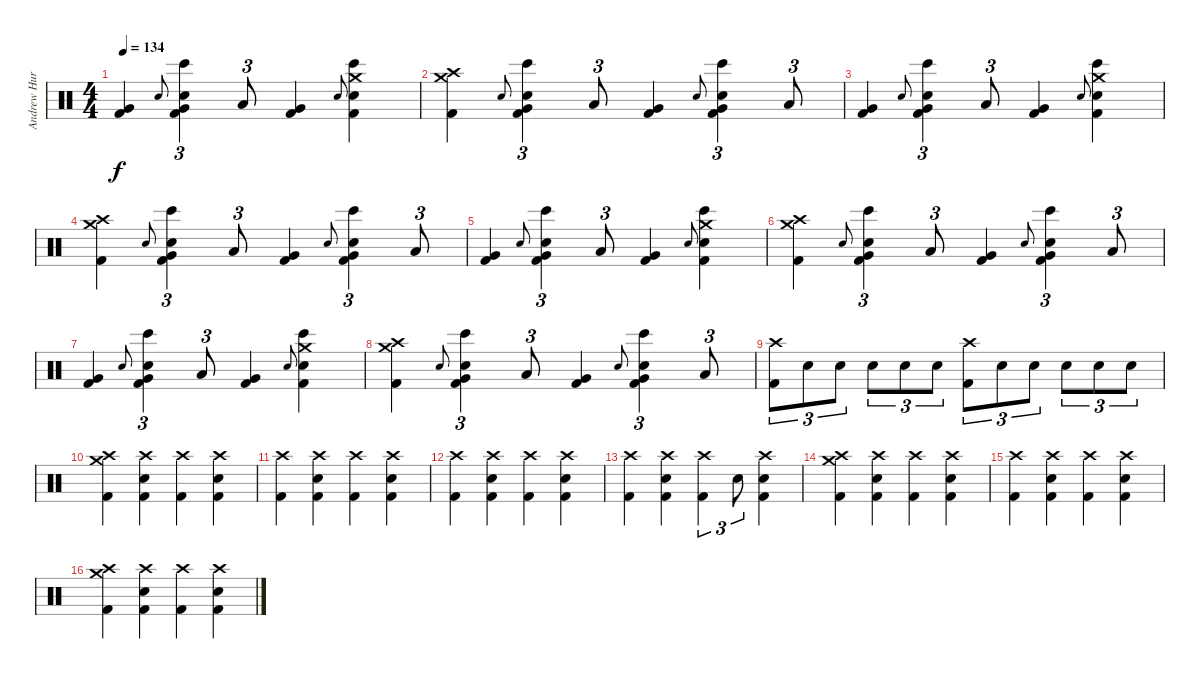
\track ("Andrew Hurley (Drums)" "Andrew Hur") {instrument percussion}
\staff {score}
\articulation defaults
\ts (4 4)
\tempo 134
\clef neutral
\ks c
("Very Low Tom (hit)" "Kick (hit) 2").4{dy f} "Snare (hit)".8{gr onbeat} ("Very Low Tom (hit)" "Snare (hit) 2" "Kick (hit) 2" "Bongo High (hit)").4{tu (3 2)} "Low Tom (hit)".8{tu (3 2)} ("Very Low Tom (hit)" "Kick (hit) 2").4 "Snare (hit)".8{gr onbeat} ("Crash medium (hit)" "Snare (hit) 2" "Kick (hit) 2" "Bongo High (hit)").4 |
("Crash high (hit)" "Crash medium (hit)" "Kick (hit) 2").4 "Snare (hit)".8{gr onbeat} ("Very Low Tom (hit)" "Snare (hit) 2" "Kick (hit) 2" "Bongo High (hit)").4{tu (3 2)} "Low Tom (hit)".8{tu (3 2)} ("Very Low Tom (hit)" "Kick (hit) 2").4 "Snare (hit)".8{gr onbeat} ("Very Low Tom (hit)" "Snare (hit) 2" "Kick (hit) 2" "Bongo High (hit)").4{tu (3 2)} "Low Tom (hit)".8{tu (3 2)} |
("Very Low Tom (hit)" "Kick (hit) 2").4 "Snare (hit)".8{gr onbeat} ("Very Low Tom (hit)" "Snare (hit) 2" "Kick (hit) 2" "Bongo High (hit)").4{tu (3 2)} "Low Tom (hit)".8{tu (3 2)} ("Very Low Tom (hit)" "Kick (hit) 2").4 "Snare (hit)".8{gr onbeat} ("Crash medium (hit)" "Snare (hit) 2" "Kick (hit) 2" "Bongo High (hit)").4 |
("Crash high (hit)" "Crash medium (hit)" "Kick (hit) 2").4 "Snare (hit)".8{gr onbeat} ("Very Low Tom (hit)" "Snare (hit) 2" "Kick (hit) 2" "Bongo High (hit)").4{tu (3 2)} "Low Tom (hit)".8{tu (3 2)} ("Very Low Tom (hit)" "Kick (hit) 2").4 "Snare (hit)".8{gr onbeat} ("Very Low Tom (hit)" "Snare (hit) 2" "Kick (hit) 2" "Bongo High (hit)").4{tu (3 2)} "Low Tom (hit)".8{tu (3 2)} |
("Very Low Tom (hit)" "Kick (hit) 2").4 "Snare (hit)".8{gr onbeat} ("Very Low Tom (hit)" "Snare (hit) 2" "Kick (hit) 2" "Bongo High (hit)").4{tu (3 2)} "Low Tom (hit)".8{tu (3 2)} ("Very Low Tom (hit)" "Kick (hit) 2").4 "Snare (hit)".8{gr onbeat} ("Crash medium (hit)" "Snare (hit) 2" "Kick (hit) 2" "Bongo High (hit)").4 |
("Crash high (hit)" "Crash medium (hit)" "Kick (hit) 2").4 "Snare (hit)".8{gr onbeat} ("Very Low Tom (hit)" "Snare (hit) 2" "Kick (hit) 2" "Bongo High (hit)").4{tu (3 2)} "Low Tom (hit)".8{tu (3 2)} ("Very Low Tom (hit)" "Kick (hit) 2").4 "Snare (hit)".8{gr onbeat} ("Very Low Tom (hit)" "Snare (hit) 2" "Kick (hit) 2" "Bongo High (hit)").4{tu (3 2)} "Low Tom (hit)".8{tu (3 2)} |
("Very Low Tom (hit)" "Kick (hit) 2").4 "Snare (hit)".8{gr onbeat} ("Very Low Tom (hit)" "Snare (hit) 2" "Kick (hit) 2" "Bongo High (hit)").4{tu (3 2)} "Low Tom (hit)".8{tu (3 2)} ("Very Low Tom (hit)" "Kick (hit) 2").4 "Snare (hit)".8{gr onbeat} ("Crash medium (hit)" "Snare (hit) 2" "Kick (hit) 2" "Bongo High (hit)").4 |
("Crash high (hit)" "Crash medium (hit)" "Kick (hit) 2").4 "Snare (hit)".8{gr onbeat} ("Very Low Tom (hit)" "Snare (hit) 2" "Kick (hit) 2" "Bongo High (hit)").4{tu (3 2)} "Low Tom (hit)".8{tu (3 2)} ("Very Low Tom (hit)" "Kick (hit) 2").4 "Snare (hit)".8{gr onbeat} ("Very Low Tom (hit)" "Snare (hit) 2" "Kick (hit) 2" "Bongo High (hit)").4{tu (3 2)} "Low Tom (hit)".8{tu (3 2)} |
("Crash high (hit)" "Kick (hit) 2").8{tu (3 2)} "Snare (hit) 2".8{tu (3 2)} "Snare (hit) 2".8{tu (3 2)} "Snare (hit) 2".8{tu (3 2)} "Snare (hit) 2".8{tu (3 2)} "Snare (hit) 2".8{tu (3 2)} ("Crash high (hit)" "Kick (hit) 2").8{tu (3 2)} "Snare (hit) 2".8{tu (3 2)} "Snare (hit) 2".8{tu (3 2)} "Snare (hit) 2".8{tu (3 2)} "Snare (hit) 2".8{tu (3 2)} "Snare (hit) 2".8{tu (3 2)} |
("Crash high (hit)" "Crash medium (hit)" "Kick (hit) 2").4 ("Crash high (hit)" "Snare (hit) 2" "Kick (hit) 2").4 ("Crash high (hit)" "Kick (hit) 2").4 ("Crash high (hit)" "Snare (hit) 2" "Kick (hit) 2").4 |
("Crash high (hit)" "Kick (hit) 2").4 ("Crash high (hit)" "Snare (hit) 2" "Kick (hit) 2").4 ("Crash high (hit)" "Kick (hit) 2").4 ("Crash high (hit)" "Snare (hit) 2" "Kick (hit) 2").4 |
("Crash high (hit)" "Kick (hit) 2").4 ("Crash high (hit)" "Snare (hit) 2" "Kick (hit) 2").4 ("Crash high (hit)" "Kick (hit) 2").4 ("Crash high (hit)" "Snare (hit) 2" "Kick (hit) 2").4 |
("Crash high (hit)" "Kick (hit) 2").4 ("Crash high (hit)" "Snare (hit) 2" "Kick (hit) 2").4 ("Crash high (hit)" "Kick (hit) 2").4{tu (3 2)} "Snare (hit) 2".8{tu (3 2)} ("Crash high (hit)" "Snare (hit) 2" "Kick (hit) 2").4 |
("Crash high (hit)" "Crash medium (hit)" "Kick (hit) 2").4 ("Crash high (hit)" "Snare (hit) 2" "Kick (hit) 2").4 ("Crash high (hit)" "Kick (hit) 2").4 ("Crash high (hit)" "Snare (hit) 2" "Kick (hit) 2").4 |
("Crash high (hit)" "Kick (hit) 2").4 ("Crash high (hit)" "Snare (hit) 2" "Kick (hit) 2").4 ("Crash high (hit)" "Kick (hit) 2").4 ("Crash high (hit)" "Snare (hit) 2" "Kick (hit) 2").4 |
("Crash high (hit)" "Crash medium (hit)" "Kick (hit) 2").4 ("Crash high (hit)" "Snare (hit) 2" "Kick (hit) 2").4 ("Crash high (hit)" "Kick (hit) 2").4 ("Crash high (hit)" "Snare (hit) 2" "Kick (hit) 2").4
